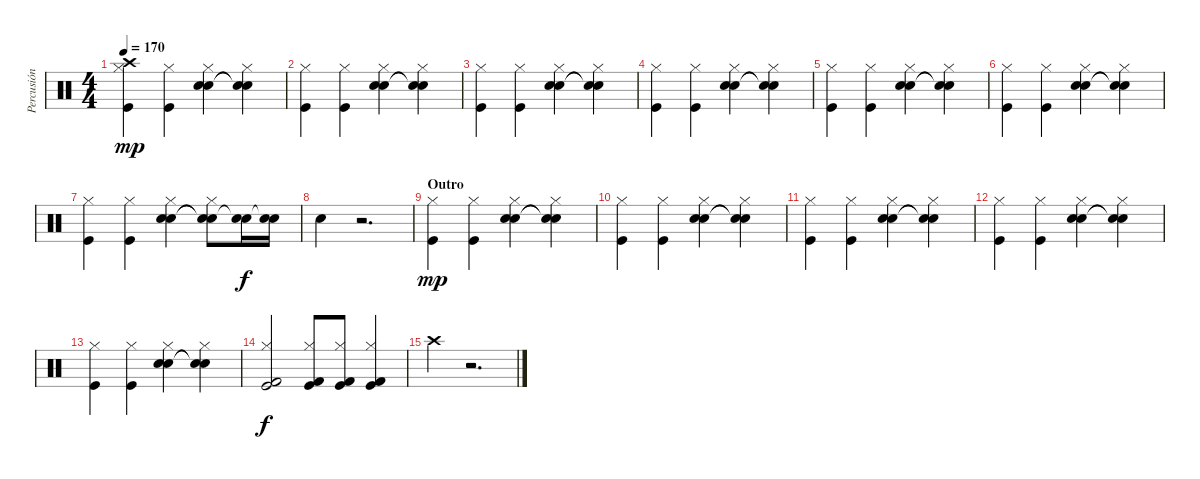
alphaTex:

\track ("Percusión" "Percusión") {instrument percussion}
\staff {score}
\articulation defaults
\ts (4 4)
\tempo 170
\clef neutral
\ks c
("Kick (hit)" "Crash high (hit)" "Hi-Hat (closed)").4{dy mp} ("Kick (hit)" "Hi-Hat (closed)").4 ("Electric Snare (hit)" "Snare (hit) 2" "Hi-Hat (closed)").4 ("Snare (hit)"{t} "Snare (hit)"{t} "Hi-Hat (closed)").4 |
("Kick (hit)" "Hi-Hat (closed)").4 ("Kick (hit)" "Hi-Hat (closed)").4 ("Electric Snare (hit)" "Snare (hit) 2" "Hi-Hat (closed)").4 ("Snare (hit)"{t} "Snare (hit)"{t} "Hi-Hat (closed)").4 |
("Kick (hit)" "Hi-Hat (closed)").4 ("Kick (hit)" "Hi-Hat (closed)").4 ("Electric Snare (hit)" "Snare (hit) 2" "Hi-Hat (closed)").4 ("Snare (hit)"{t} "Snare (hit)"{t} "Hi-Hat (closed)").4 |
("Kick (hit)" "Hi-Hat (closed)").4 ("Kick (hit)" "Hi-Hat (closed)").4 ("Electric Snare (hit)" "Snare (hit) 2" "Hi-Hat (closed)").4 ("Snare (hit)"{t} "Snare (hit)"{t} "Hi-Hat (closed)").4 |
("Kick (hit)" "Hi-Hat (closed)").4 ("Kick (hit)" "Hi-Hat (closed)").4 ("Electric Snare (hit)" "Snare (hit) 2" "Hi-Hat (closed)").4 ("Snare (hit)"{t} "Snare (hit)"{t} "Hi-Hat (closed)").4 |
("Kick (hit)" "Hi-Hat (closed)").4 ("Kick (hit)" "Hi-Hat (closed)").4 ("Electric Snare (hit)" "Snare (hit) 2" "Hi-Hat (closed)").4 ("Snare (hit)"{t} "Snare (hit)"{t} "Hi-Hat (closed)").4 |
("Kick (hit)" "Hi-Hat (closed)").4 ("Kick (hit)" "Hi-Hat (closed)").4 ("Electric Snare (hit)" "Snare (hit) 2" "Hi-Hat (closed)").4 ("Snare (hit)"{t} "Snare (hit)"{t} "Hi-Hat (closed)").8 ("Electric Snare (hit)" "Snare (hit)"{t}).16{dy f} ("Electric Snare (hit)" "Snare (hit)"{t}).16 |
"Electric Snare (hit)".4 r.2{d} |
\section ("" "Outro")
("Kick (hit)" "Hi-Hat (closed)").4{dy mp} ("Kick (hit)" "Hi-Hat (closed)").4 ("Electric Snare (hit)" "Snare (hit) 2" "Hi-Hat (closed)").4 ("Snare (hit)"{t} "Snare (hit)"{t} "Hi-Hat (closed)").4 |
("Kick (hit)" "Hi-Hat (closed)").4 ("Kick (hit)" "Hi-Hat (closed)").4 ("Electric Snare (hit)" "Snare (hit) 2" "Hi-Hat (closed)").4 ("Snare (hit)"{t} "Snare (hit)"{t} "Hi-Hat (closed)").4 |
("Kick (hit)" "Hi-Hat (closed)").4 ("Kick (hit)" "Hi-Hat (closed)").4 ("Electric Snare (hit)" "Snare (hit) 2" "Hi-Hat (closed)").4 ("Snare (hit)"{t} "Snare (hit)"{t} "Hi-Hat (closed)").4 |
("Kick (hit)" "Hi-Hat (closed)").4 ("Kick (hit)" "Hi-Hat (closed)").4 ("Electric Snare (hit)" "Snare (hit) 2" "Hi-Hat (closed)").4 ("Snare (hit)"{t} "Snare (hit)"{t} "Hi-Hat (closed)").4 |
("Kick (hit)" "Hi-Hat (closed)").4 ("Kick (hit)" "Hi-Hat (closed)").4 ("Electric Snare (hit)" "Snare (hit) 2" "Hi-Hat (closed)").4 ("Snare (hit)"{t} "Snare (hit)"{t} "Hi-Hat (closed)").4 |
("Kick (hit)" "Kick (hit) 2" "Hi-Hat (closed)").2{dy f} ("Kick (hit) 2" "Kick (hit)" "Hi-Hat (closed)").8 ("Kick (hit) 2" "Kick (hit)" "Hi-Hat (closed)").8 ("Kick (hit) 2" "Kick (hit)" "Hi-Hat (closed)").4 |
"Crash high (hit)".4 r.2{d}
